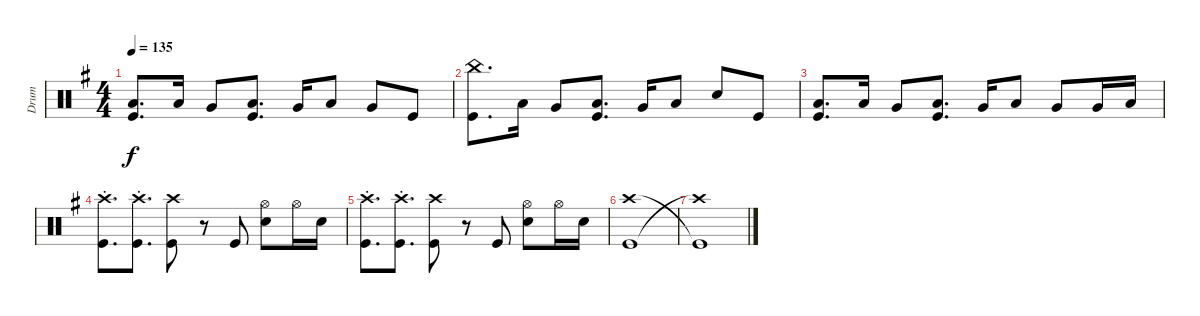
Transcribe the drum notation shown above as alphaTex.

\track ("Drum" "Drum") {instrument percussion}
\staff {score}
\articulation defaults
\ts (4 4)
\tempo 135
\clef neutral
\ks g
("Low Floor Tom (hit)" "Kick (hit)").8{d dy f} "Low Tom (hit)".16 "Very Low Tom (hit)".8 ("Low Tom (hit)" "Kick (hit)").8{d} "Very Low Tom (hit)".16 "Low Floor Tom (hit)".8 "Very Low Tom (hit)".8 "Kick (hit)".8 |
("China (hit)" "Kick (hit)").8{d} "Low Tom (hit)".16 "Very Low Tom (hit)".8 ("Low Tom (hit)" "Kick (hit)").8{d} "Very Low Tom (hit)".16 "Low Floor Tom (hit)".8 "Snare (hit) 2".8 "Kick (hit)".8 |
("Low Floor Tom (hit)" "Kick (hit)").8{d} "Low Tom (hit)".16 "Very Low Tom (hit)".8 ("Low Tom (hit)" "Kick (hit)").8{d} "Very Low Tom (hit)".16 "Low Floor Tom (hit)".8 "Very Low Tom (hit)".8 "Very Low Tom (hit)".16 "Low Tom (hit)".16 |
("Crash high (hit)"{st} "Kick (hit)"{st}).8{d} ("Kick (hit)"{st} "Crash high (hit)"{st}).8{d} ("Kick (hit)" "Crash high (hit)").8 r.8 "Kick (hit)".8 ("Snare (hit) 2" "Hi-Hat (open)").8 "Hi-Hat (open)".16 "Snare (hit) 2".16 |
("Crash high (hit)"{st} "Kick (hit)"{st}).8{d} ("Kick (hit)"{st} "Crash high (hit)"{st}).8{d} ("Kick (hit)" "Crash high (hit)").8 r.8 "Kick (hit)".8 ("Snare (hit) 2" "Hi-Hat (open)").8 "Hi-Hat (open)".16 "Snare (hit) 2".16 |
("Crash high (hit)" "Kick (hit)").1 |
("Kick (hit)"{t} "Crash high (hit)"{t}).1
